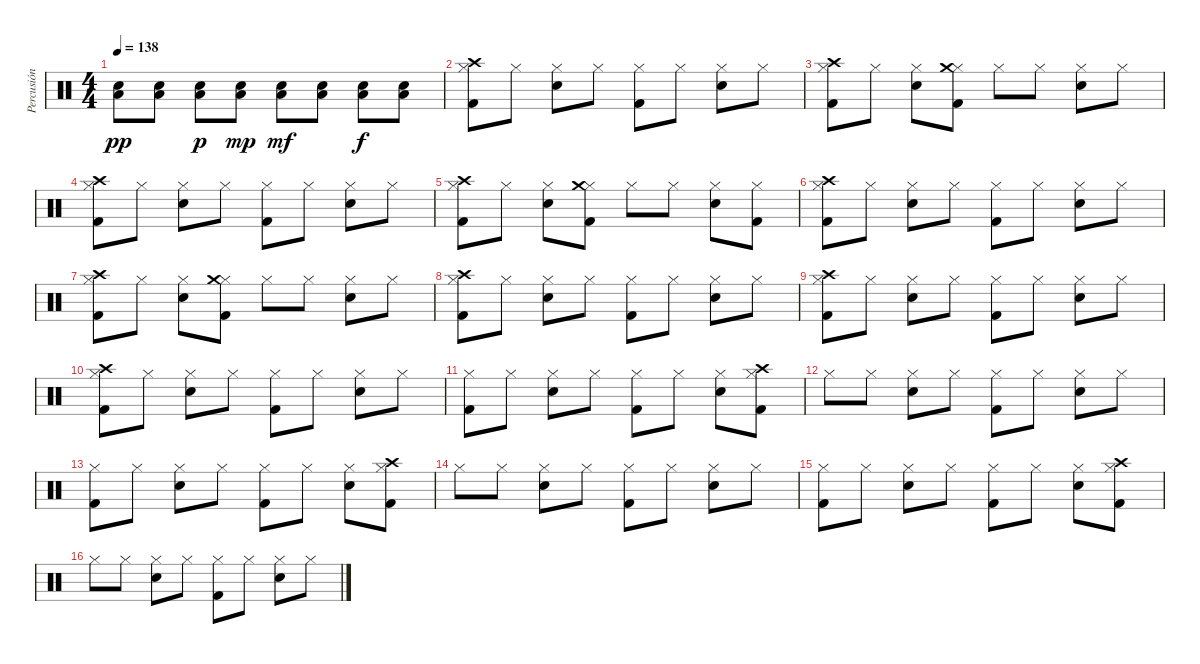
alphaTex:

\track ("Percusión" "Percusión") {instrument percussion bank 10}
\staff {score}
\articulation defaults
\ts (4 4)
\tempo 138
\clef neutral
\ks c
("Snare (hit) 2" "Low Floor Tom (hit)").8{dy pp} ("Snare (hit) 2" "Low Floor Tom (hit)").8 ("Snare (hit) 2" "Low Floor Tom (hit)").8{dy p} ("Snare (hit) 2" "Low Floor Tom (hit)").8{dy mp} ("Snare (hit) 2" "Low Floor Tom (hit)").8{dy mf} ("Snare (hit) 2" "Low Floor Tom (hit)").8 ("Snare (hit) 2" "Low Floor Tom (hit)").8{dy f} ("Snare (hit) 2" "Low Floor Tom (hit)").8 |
("Hi-Hat (closed)" "Crash high (hit)" "Kick (hit) 2").8 "Hi-Hat (closed)".8 ("Hi-Hat (closed)" "Snare (hit) 2").8 "Hi-Hat (closed)".8 ("Hi-Hat (closed)" "Kick (hit) 2").8 "Hi-Hat (closed)".8 ("Hi-Hat (closed)" "Snare (hit) 2").8 "Hi-Hat (closed)".8 |
("Hi-Hat (closed)" "Crash high (hit)" "Kick (hit) 2").8 "Hi-Hat (closed)".8 ("Hi-Hat (closed)" "Snare (hit) 2").8 ("Hi-Hat (closed)" "Crash medium (hit)" "Kick (hit) 2").8 "Hi-Hat (closed)".8 "Hi-Hat (closed)".8 ("Hi-Hat (closed)" "Snare (hit) 2").8 "Hi-Hat (closed)".8 |
("Hi-Hat (closed)" "Crash high (hit)" "Kick (hit) 2").8 "Hi-Hat (closed)".8 ("Hi-Hat (closed)" "Snare (hit) 2").8 "Hi-Hat (closed)".8 ("Hi-Hat (closed)" "Kick (hit) 2").8 "Hi-Hat (closed)".8 ("Hi-Hat (closed)" "Snare (hit) 2").8 "Hi-Hat (closed)".8 |
("Hi-Hat (closed)" "Crash high (hit)" "Kick (hit) 2").8 "Hi-Hat (closed)".8 ("Hi-Hat (closed)" "Snare (hit) 2").8 ("Hi-Hat (closed)" "Crash medium (hit)" "Kick (hit) 2").8 "Hi-Hat (closed)".8 "Hi-Hat (closed)".8 ("Hi-Hat (closed)" "Snare (hit) 2").8 ("Hi-Hat (closed)" "Kick (hit) 2").8 |
("Hi-Hat (closed)" "Crash high (hit)" "Kick (hit) 2").8 "Hi-Hat (closed)".8 ("Hi-Hat (closed)" "Snare (hit) 2").8 "Hi-Hat (closed)".8 ("Hi-Hat (closed)" "Kick (hit) 2").8 "Hi-Hat (closed)".8 ("Hi-Hat (closed)" "Snare (hit) 2").8 "Hi-Hat (closed)".8 |
("Hi-Hat (closed)" "Crash high (hit)" "Kick (hit) 2").8 "Hi-Hat (closed)".8 ("Hi-Hat (closed)" "Snare (hit) 2").8 ("Hi-Hat (closed)" "Crash medium (hit)" "Kick (hit) 2").8 "Hi-Hat (closed)".8 "Hi-Hat (closed)".8 ("Hi-Hat (closed)" "Snare (hit) 2").8 "Hi-Hat (closed)".8 |
("Hi-Hat (closed)" "Crash high (hit)" "Kick (hit) 2").8 "Hi-Hat (closed)".8 ("Hi-Hat (closed)" "Snare (hit) 2").8 "Hi-Hat (closed)".8 ("Hi-Hat (closed)" "Kick (hit) 2").8 "Hi-Hat (closed)".8 ("Hi-Hat (closed)" "Snare (hit) 2").8 "Hi-Hat (closed)".8 |
("Hi-Hat (closed)" "Crash high (hit)" "Kick (hit) 2").8 "Hi-Hat (closed)".8 ("Hi-Hat (closed)" "Snare (hit) 2").8 "Hi-Hat (closed)".8 ("Hi-Hat (closed)" "Kick (hit) 2").8 "Hi-Hat (closed)".8 ("Hi-Hat (closed)" "Snare (hit) 2").8 "Hi-Hat (closed)".8 |
("Hi-Hat (closed)" "Crash high (hit)" "Kick (hit) 2").8 "Hi-Hat (closed)".8 ("Hi-Hat (closed)" "Snare (hit) 2").8 "Hi-Hat (closed)".8 ("Hi-Hat (closed)" "Kick (hit) 2").8 "Hi-Hat (closed)".8 ("Hi-Hat (closed)" "Snare (hit) 2").8 "Hi-Hat (closed)".8 |
("Hi-Hat (closed)" "Kick (hit) 2").8 "Hi-Hat (closed)".8 ("Hi-Hat (closed)" "Snare (hit) 2").8 "Hi-Hat (closed)".8 ("Hi-Hat (closed)" "Kick (hit) 2").8 "Hi-Hat (closed)".8 ("Hi-Hat (closed)" "Snare (hit) 2").8 ("Hi-Hat (closed)" "Crash high (hit)" "Kick (hit) 2").8 |
"Hi-Hat (closed)".8 "Hi-Hat (closed)".8 ("Hi-Hat (closed)" "Snare (hit) 2").8 "Hi-Hat (closed)".8 ("Hi-Hat (closed)" "Kick (hit) 2").8 "Hi-Hat (closed)".8 ("Hi-Hat (closed)" "Snare (hit) 2").8 "Hi-Hat (closed)".8 |
("Hi-Hat (closed)" "Kick (hit) 2").8 "Hi-Hat (closed)".8 ("Hi-Hat (closed)" "Snare (hit) 2").8 "Hi-Hat (closed)".8 ("Hi-Hat (closed)" "Kick (hit) 2").8 "Hi-Hat (closed)".8 ("Hi-Hat (closed)" "Snare (hit) 2").8 ("Hi-Hat (closed)" "Crash high (hit)" "Kick (hit) 2").8 |
"Hi-Hat (closed)".8 "Hi-Hat (closed)".8 ("Hi-Hat (closed)" "Snare (hit) 2").8 "Hi-Hat (closed)".8 ("Hi-Hat (closed)" "Kick (hit) 2").8 "Hi-Hat (closed)".8 ("Hi-Hat (closed)" "Snare (hit) 2").8 "Hi-Hat (closed)".8 |
("Hi-Hat (closed)" "Kick (hit) 2").8 "Hi-Hat (closed)".8 ("Hi-Hat (closed)" "Snare (hit) 2").8 "Hi-Hat (closed)".8 ("Hi-Hat (closed)" "Kick (hit) 2").8 "Hi-Hat (closed)".8 ("Hi-Hat (closed)" "Snare (hit) 2").8 ("Hi-Hat (closed)" "Crash high (hit)" "Kick (hit) 2").8 |
"Hi-Hat (closed)".8 "Hi-Hat (closed)".8 ("Hi-Hat (closed)" "Snare (hit) 2").8 "Hi-Hat (closed)".8 ("Hi-Hat (closed)" "Kick (hit) 2").8 "Hi-Hat (closed)".8 ("Hi-Hat (closed)" "Snare (hit) 2").8 "Hi-Hat (closed)".8
